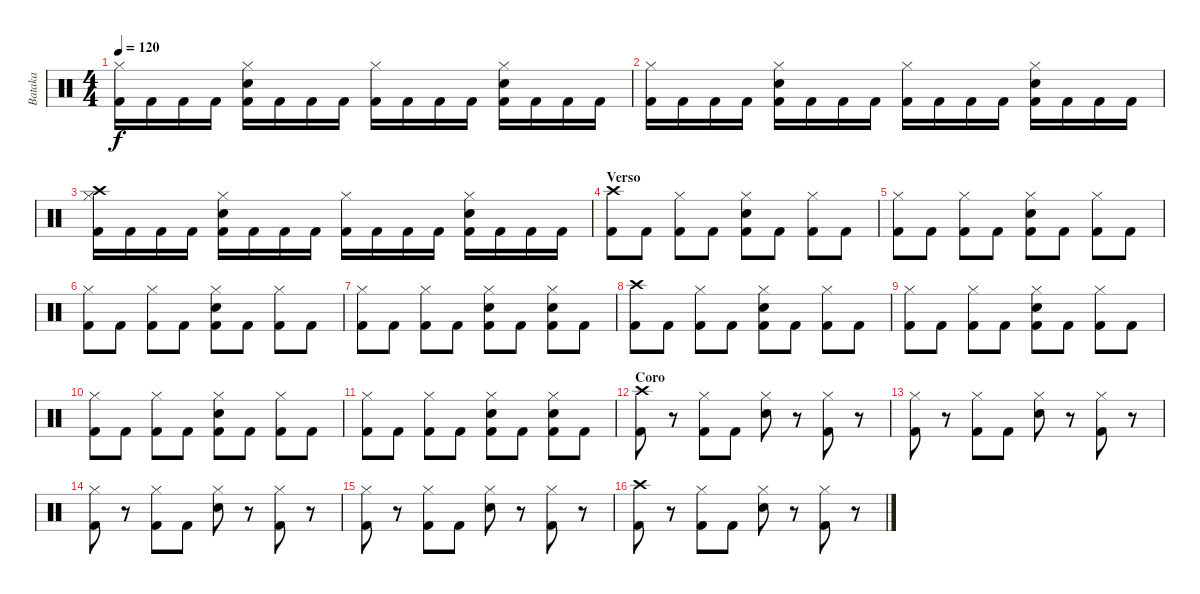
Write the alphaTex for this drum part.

\track ("Bataka" "Bataka") {instrument percussion}
\staff {score}
\articulation defaults
\ts (4 4)
\tempo 120
\clef neutral
\ks c
("Hi-Hat (closed)" "Kick (hit) 2").16{dy f} "Kick (hit) 2".16 "Kick (hit) 2".16 "Kick (hit) 2".16 ("Hi-Hat (closed)" "Snare (hit) 2" "Kick (hit) 2").16 "Kick (hit) 2".16 "Kick (hit) 2".16 "Kick (hit) 2".16 ("Hi-Hat (closed)" "Kick (hit) 2").16 "Kick (hit) 2".16 "Kick (hit) 2".16 "Kick (hit) 2".16 ("Hi-Hat (closed)" "Snare (hit) 2" "Kick (hit) 2").16 "Kick (hit) 2".16 "Kick (hit) 2".16 "Kick (hit) 2".16 |
("Hi-Hat (closed)" "Kick (hit) 2").16 "Kick (hit) 2".16 "Kick (hit) 2".16 "Kick (hit) 2".16 ("Hi-Hat (closed)" "Snare (hit) 2" "Kick (hit) 2").16 "Kick (hit) 2".16 "Kick (hit) 2".16 "Kick (hit) 2".16 ("Hi-Hat (closed)" "Kick (hit) 2").16 "Kick (hit) 2".16 "Kick (hit) 2".16 "Kick (hit) 2".16 ("Hi-Hat (closed)" "Snare (hit) 2" "Kick (hit) 2").16 "Kick (hit) 2".16 "Kick (hit) 2".16 "Kick (hit) 2".16 |
("Hi-Hat (closed)" "Crash high (hit)" "Kick (hit) 2").16 "Kick (hit) 2".16 "Kick (hit) 2".16 "Kick (hit) 2".16 ("Hi-Hat (closed)" "Snare (hit) 2" "Kick (hit) 2").16 "Kick (hit) 2".16 "Kick (hit) 2".16 "Kick (hit) 2".16 ("Hi-Hat (closed)" "Kick (hit) 2").16 "Kick (hit) 2".16 "Kick (hit) 2".16 "Kick (hit) 2".16 ("Hi-Hat (closed)" "Snare (hit) 2" "Kick (hit) 2").16 "Kick (hit) 2".16 "Kick (hit) 2".16 "Kick (hit) 2".16 |
\section ("" "Verso")
("Crash high (hit)" "Kick (hit) 2").8 "Kick (hit) 2".8 ("Hi-Hat (closed)" "Kick (hit) 2").8 "Kick (hit) 2".8 ("Hi-Hat (closed)" "Snare (hit) 2" "Kick (hit) 2").8 "Kick (hit) 2".8 ("Hi-Hat (closed)" "Kick (hit) 2").8 "Kick (hit) 2".8 |
("Hi-Hat (closed)" "Kick (hit) 2").8 "Kick (hit) 2".8 ("Hi-Hat (closed)" "Kick (hit) 2").8 "Kick (hit) 2".8 ("Hi-Hat (closed)" "Snare (hit) 2" "Kick (hit) 2").8 "Kick (hit) 2".8 ("Hi-Hat (closed)" "Kick (hit) 2").8 "Kick (hit) 2".8 |
("Hi-Hat (closed)" "Kick (hit) 2").8 "Kick (hit) 2".8 ("Hi-Hat (closed)" "Kick (hit) 2").8 "Kick (hit) 2".8 ("Hi-Hat (closed)" "Snare (hit) 2" "Kick (hit) 2").8 "Kick (hit) 2".8 ("Hi-Hat (closed)" "Kick (hit) 2").8 "Kick (hit) 2".8 |
("Hi-Hat (closed)" "Kick (hit) 2").8 "Kick (hit) 2".8 ("Hi-Hat (closed)" "Kick (hit) 2").8 "Kick (hit) 2".8 ("Hi-Hat (closed)" "Snare (hit) 2" "Kick (hit) 2").8 "Kick (hit) 2".8 ("Hi-Hat (closed)" "Snare (hit) 2" "Kick (hit) 2").8 "Kick (hit) 2".8 |
("Crash high (hit)" "Kick (hit) 2").8 "Kick (hit) 2".8 ("Hi-Hat (closed)" "Kick (hit) 2").8 "Kick (hit) 2".8 ("Hi-Hat (closed)" "Snare (hit) 2" "Kick (hit) 2").8 "Kick (hit) 2".8 ("Hi-Hat (closed)" "Kick (hit) 2").8 "Kick (hit) 2".8 |
("Hi-Hat (closed)" "Kick (hit) 2").8 "Kick (hit) 2".8 ("Hi-Hat (closed)" "Kick (hit) 2").8 "Kick (hit) 2".8 ("Hi-Hat (closed)" "Snare (hit) 2" "Kick (hit) 2").8 "Kick (hit) 2".8 ("Hi-Hat (closed)" "Kick (hit) 2").8 "Kick (hit) 2".8 |
("Hi-Hat (closed)" "Kick (hit) 2").8 "Kick (hit) 2".8 ("Hi-Hat (closed)" "Kick (hit) 2").8 "Kick (hit) 2".8 ("Hi-Hat (closed)" "Snare (hit) 2" "Kick (hit) 2").8 "Kick (hit) 2".8 ("Hi-Hat (closed)" "Kick (hit) 2").8 "Kick (hit) 2".8 |
("Hi-Hat (closed)" "Kick (hit) 2").8 "Kick (hit) 2".8 ("Hi-Hat (closed)" "Kick (hit) 2").8 "Kick (hit) 2".8 ("Hi-Hat (closed)" "Snare (hit) 2" "Kick (hit) 2").8 "Kick (hit) 2".8 ("Hi-Hat (closed)" "Snare (hit) 2" "Kick (hit) 2").8 "Kick (hit) 2".8 |
\section ("" "Coro")
("Crash high (hit)" "Kick (hit) 2").8 r.8 ("Hi-Hat (closed)" "Kick (hit) 2").8 "Kick (hit) 2".8 ("Hi-Hat (closed)" "Snare (hit) 2").8 r.8 ("Hi-Hat (closed)" "Kick (hit) 2").8 r.8 |
("Hi-Hat (closed)" "Kick (hit) 2").8 r.8 ("Hi-Hat (closed)" "Kick (hit) 2").8 "Kick (hit) 2".8 ("Hi-Hat (closed)" "Snare (hit) 2").8 r.8 ("Hi-Hat (closed)" "Kick (hit) 2").8 r.8 |
("Hi-Hat (closed)" "Kick (hit) 2").8 r.8 ("Hi-Hat (closed)" "Kick (hit) 2").8 "Kick (hit) 2".8 ("Hi-Hat (closed)" "Snare (hit) 2").8 r.8 ("Hi-Hat (closed)" "Kick (hit) 2").8 r.8 |
("Hi-Hat (closed)" "Kick (hit) 2").8 r.8 ("Hi-Hat (closed)" "Kick (hit) 2").8 "Kick (hit) 2".8 ("Hi-Hat (closed)" "Snare (hit) 2").8 r.8 ("Hi-Hat (closed)" "Kick (hit) 2").8 r.8 |
("Crash high (hit)" "Kick (hit) 2").8 r.8 ("Hi-Hat (closed)" "Kick (hit) 2").8 "Kick (hit) 2".8 ("Hi-Hat (closed)" "Snare (hit) 2").8 r.8 ("Hi-Hat (closed)" "Kick (hit) 2").8 r.8
